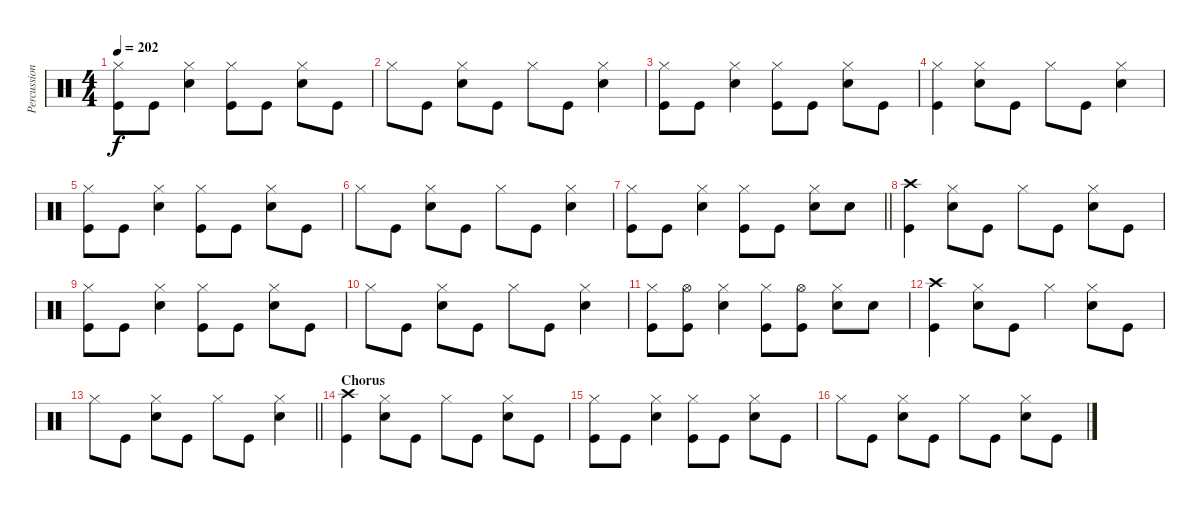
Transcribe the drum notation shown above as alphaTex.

\track ("Percussion" "Percussion") {instrument percussion}
\staff {score}
\articulation defaults
\ts (4 4)
\tempo 202
\clef neutral
\ks c
("Hi-Hat (closed)" "Kick (hit)").8{dy f} "Kick (hit)".8 ("Hi-Hat (closed)" "Snare (hit) 2").4 ("Hi-Hat (closed)" "Kick (hit)").8 "Kick (hit)".8 ("Hi-Hat (closed)" "Snare (hit) 2").8 "Kick (hit)".8 |
"Hi-Hat (closed)".8 "Kick (hit)".8 ("Hi-Hat (closed)" "Snare (hit) 2").8 "Kick (hit)".8 "Hi-Hat (closed)".8 "Kick (hit)".8 ("Hi-Hat (closed)" "Snare (hit) 2").4 |
("Hi-Hat (closed)" "Kick (hit)").8 "Kick (hit)".8 ("Hi-Hat (closed)" "Snare (hit) 2").4 ("Hi-Hat (closed)" "Kick (hit)").8 "Kick (hit)".8 ("Hi-Hat (closed)" "Snare (hit) 2").8 "Kick (hit)".8 |
("Hi-Hat (closed)" "Kick (hit)").4 ("Hi-Hat (closed)" "Snare (hit) 2").8 "Kick (hit)".8 "Hi-Hat (closed)".8 "Kick (hit)".8 ("Hi-Hat (closed)" "Snare (hit) 2").4 |
("Hi-Hat (closed)" "Kick (hit)").8 "Kick (hit)".8 ("Hi-Hat (closed)" "Snare (hit) 2").4 ("Hi-Hat (closed)" "Kick (hit)").8 "Kick (hit)".8 ("Hi-Hat (closed)" "Snare (hit) 2").8 "Kick (hit)".8 |
"Hi-Hat (closed)".8 "Kick (hit)".8 ("Hi-Hat (closed)" "Snare (hit) 2").8 "Kick (hit)".8 "Hi-Hat (closed)".8 "Kick (hit)".8 ("Hi-Hat (closed)" "Snare (hit) 2").4 |
\barLineRight lightlight
("Hi-Hat (closed)" "Kick (hit)").8 "Kick (hit)".8 ("Hi-Hat (closed)" "Snare (hit) 2").4 ("Hi-Hat (closed)" "Kick (hit)").8 "Kick (hit)".8 ("Hi-Hat (closed)" "Snare (hit) 2").8 "Snare (hit) 2".8 |
("Crash high (hit)" "Kick (hit)").4 ("Hi-Hat (closed)" "Snare (hit) 2").8 "Kick (hit)".8 "Hi-Hat (closed)".8 "Kick (hit)".8 ("Hi-Hat (closed)" "Snare (hit) 2").8 "Kick (hit)".8 |
("Hi-Hat (closed)" "Kick (hit)").8 "Kick (hit)".8 ("Hi-Hat (closed)" "Snare (hit) 2").4 ("Hi-Hat (closed)" "Kick (hit)").8 "Kick (hit)".8 ("Hi-Hat (closed)" "Snare (hit) 2").8 "Kick (hit)".8 |
"Hi-Hat (closed)".8 "Kick (hit)".8 ("Hi-Hat (closed)" "Snare (hit) 2").8 "Kick (hit)".8 "Hi-Hat (closed)".8 "Kick (hit)".8 ("Hi-Hat (closed)" "Snare (hit) 2").4 |
("Hi-Hat (closed)" "Kick (hit)").8 ("Hi-Hat (open)" "Kick (hit)").8 ("Hi-Hat (closed)" "Snare (hit) 2").4 ("Hi-Hat (closed)" "Kick (hit)").8 ("Hi-Hat (open)" "Kick (hit)").8 ("Hi-Hat (closed)" "Snare (hit) 2").8 "Snare (hit) 2".8 |
("Crash high (hit)" "Kick (hit)").4 ("Hi-Hat (closed)" "Snare (hit) 2").8 "Kick (hit)".8 "Hi-Hat (closed)".4 ("Hi-Hat (closed)" "Snare (hit) 2").8 "Kick (hit)".8 |
\barLineRight lightlight "Hi-Hat (closed)".8 "Kick (hit)".8
("Hi-Hat (closed)" "Snare (hit) 2").8 "Kick (hit)".8 "Hi-Hat (closed)".8 "Kick (hit)".8 ("Hi-Hat (closed)" "Snare (hit) 2").4 |
\section ("" "Chorus")
("Crash high (hit)" "Kick (hit)").4 ("Hi-Hat (closed)" "Snare (hit) 2").8 "Kick (hit)".8 "Hi-Hat (closed)".8 "Kick (hit)".8 ("Hi-Hat (closed)" "Snare (hit) 2").8 "Kick (hit)".8 |
("Hi-Hat (closed)" "Kick (hit)").8 "Kick (hit)".8 ("Hi-Hat (closed)" "Snare (hit) 2").4 ("Hi-Hat (closed)" "Kick (hit)").8 "Kick (hit)".8 ("Hi-Hat (closed)" "Snare (hit) 2").8 "Kick (hit)".8 |
"Hi-Hat (closed)".8 "Kick (hit)".8 ("Hi-Hat (closed)" "Snare (hit) 2").8 "Kick (hit)".8 "Hi-Hat (closed)".8 "Kick (hit)".8 ("Hi-Hat (closed)" "Snare (hit) 2").8 "Kick (hit)".8
